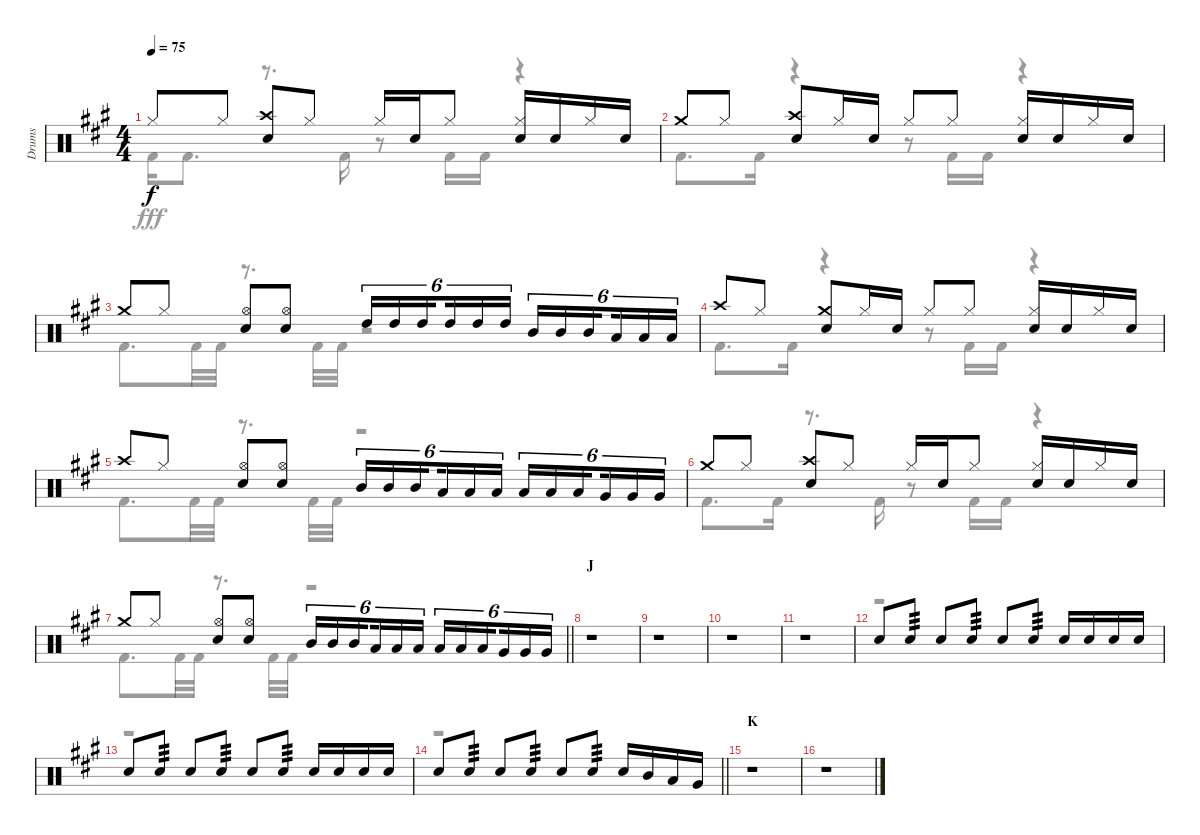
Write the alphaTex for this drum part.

\track ("Drums" "Drums") {instrument percussion}
\staff {score}
\articulation defaults
\voice
\ts (4 4)
\tempo 75
\clef neutral
\ks a "Hi-Hat (closed)".8{dy f} "Hi-Hat (closed)".8
("Crash high (hit)" "Snare (hit) 2").8 "Hi-Hat (closed)".8 "Hi-Hat (closed)".16 "Snare (hit) 2".16 "Hi-Hat (closed)".8 ("Hi-Hat (closed)" "Snare (hit) 2").16 "Snare (hit) 2".16 "Hi-Hat (closed)".16 "Snare (hit) 2".16 |
"Crash medium (hit)".8 "Hi-Hat (closed)".8 ("Crash high (hit)" "Snare (hit) 2").8 "Hi-Hat (closed)".16 "Snare (hit) 2".16 "Hi-Hat (closed)".8 "Hi-Hat (closed)".8 ("Hi-Hat (closed)" "Snare (hit) 2").16 "Snare (hit) 2".16 "Hi-Hat (closed)".16 "Snare (hit) 2".16 |
"Crash medium (hit)".8 "Hi-Hat (closed)".8 ("Hi-Hat (open)" "Snare (hit) 2").8 ("Hi-Hat (open)" "Snare (hit) 2").8 "High Tom (hit)".16{tu (6 4)} "High Tom (hit)".16{tu (6 4)} "High Tom (hit)".16{tu (6 4) beam splitsecondary} "High Tom (hit)".16{tu (6 4)} "High Tom (hit)".16{tu (6 4)} "High Tom (hit)".16{tu (6 4)} "Mid Tom (hit)".16{tu (6 4)} "Mid Tom (hit)".16{tu (6 4)} "Mid Tom (hit)".16{tu (6 4) beam splitsecondary} "Low Tom (hit)".16{tu (6 4)} "Low Tom (hit)".16{tu (6 4)} "Low Tom (hit)".16{tu (6 4)} |
"Crash high (hit)".8 "Hi-Hat (closed)".8 ("Crash medium (hit)" "Snare (hit) 2").8 "Hi-Hat (closed)".16 "Snare (hit) 2".16 "Hi-Hat (closed)".8 "Hi-Hat (closed)".8 ("Hi-Hat (closed)" "Snare (hit) 2").16 "Snare (hit) 2".16 "Hi-Hat (closed)".16 "Snare (hit) 2".16 |
"Crash high (hit)".8 "Hi-Hat (closed)".8 ("Hi-Hat (open)" "Snare (hit) 2").8 ("Hi-Hat (open)" "Snare (hit) 2").8 "Mid Tom (hit)".16{tu (6 4)} "Mid Tom (hit)".16{tu (6 4)} "Mid Tom (hit)".16{tu (6 4) beam splitsecondary} "Low Tom (hit)".16{tu (6 4)} "Low Tom (hit)".16{tu (6 4)} "Low Tom (hit)".16{tu (6 4)} "Low Tom (hit)".16{tu (6 4)} "Low Tom (hit)".16{tu (6 4)} "Low Tom (hit)".16{tu (6 4) beam splitsecondary} "Very Low Tom (hit)".16{tu (6 4)} "Very Low Tom (hit)".16{tu (6 4)} "Very Low Tom (hit)".16{tu (6 4)} |
"Crash medium (hit)".8 "Hi-Hat (closed)".8 ("Crash high (hit)" "Snare (hit) 2").8 "Hi-Hat (closed)".8 "Hi-Hat (closed)".16 "Snare (hit) 2".16 "Hi-Hat (closed)".8 ("Hi-Hat (closed)" "Snare (hit) 2").16 "Snare (hit) 2".16 "Hi-Hat (closed)".16 "Snare (hit) 2".16 |
\barLineRight lightlight "Crash medium (hit)".8 "Hi-Hat (closed)".8
("Hi-Hat (open)" "Snare (hit) 2").8 ("Hi-Hat (open)" "Snare (hit) 2").8 "Mid Tom (hit)".16{tu (6 4)} "Mid Tom (hit)".16{tu (6 4)} "Mid Tom (hit)".16{tu (6 4) beam splitsecondary} "Low Tom (hit)".16{tu (6 4)} "Low Tom (hit)".16{tu (6 4)} "Low Tom (hit)".16{tu (6 4)} "Low Tom (hit)".16{tu (6 4)} "Low Tom (hit)".16{tu (6 4)} "Low Tom (hit)".16{tu (6 4) beam splitsecondary} "Very Low Tom (hit)".16{tu (6 4)} "Very Low Tom (hit)".16{tu (6 4)} "Very Low Tom (hit)".16{tu (6 4)} |
\section ("" "J")
r.1 |
r.1 |
r.1 |
r.1 |
"Snare (hit) 2".8 "Snare (hit) 2".8{tp 3} "Snare (hit) 2".8 "Snare (hit) 2".8{tp 3} "Snare (hit) 2".8 "Snare (hit) 2".8{tp 3} "Snare (hit) 2".16 "Snare (hit) 2".16 "Snare (hit) 2".16 "Snare (hit) 2".16 |
"Snare (hit) 2".8 "Snare (hit) 2".8{tp 3} "Snare (hit) 2".8 "Snare (hit) 2".8{tp 3} "Snare (hit) 2".8 "Snare (hit) 2".8{tp 3} "Snare (hit) 2".16 "Snare (hit) 2".16 "Snare (hit) 2".16 "Snare (hit) 2".16 |
\barLineRight lightlight "Snare (hit) 2".8 "Snare (hit) 2".8{tp 3} "Snare (hit) 2".8 "Snare (hit) 2".8{tp 3} "Snare (hit) 2".8 "Snare (hit) 2".8{tp 3} "Snare (hit) 2".16 "Mid Tom (hit)".16 "Low Tom (hit)".16 "Very Low Tom (hit)".16
|
\section ("" "K")
r.1 |
r.1
\voice
\clef neutral
\ottava regular
\simile none
\ks a "Kick (hit) 2".16{dy fff} "Kick (hit) 2".8{d}
r.8{d} "Kick (hit) 2".16 r.8 "Kick (hit) 2".16 "Kick (hit) 2".16 r.4 |
"Kick (hit) 2".8{d} "Kick (hit) 2".16 r.4 r.8 "Kick (hit) 2".16 "Kick (hit) 2".16 r.4 |
"Kick (hit) 2".8{d} "Kick (hit) 2".32 "Kick (hit) 2".32 r.8{d} "Kick (hit) 2".32 "Kick (hit) 2".32 r.2 |
"Kick (hit) 2".8{d} "Kick (hit) 2".16 r.4 r.8 "Kick (hit) 2".16 "Kick (hit) 2".16 r.4 |
"Kick (hit) 2".8{d} "Kick (hit) 2".32 "Kick (hit) 2".32 r.8{d} "Kick (hit) 2".32 "Kick (hit) 2".32 r.2 |
"Kick (hit) 2".8{d} "Kick (hit) 2".16 r.8{d} "Kick (hit) 2".16 r.8 "Kick (hit) 2".16 "Kick (hit) 2".16 r.4 |
\barLineRight lightlight "Kick (hit) 2".8{d} "Kick (hit) 2".32 "Kick (hit) 2".32
r.8{d} "Kick (hit) 2".32 "Kick (hit) 2".32 r.2 |
r.1 |
r.1 |
r.1 |
r.1 |
r.1 |
r.1 |
\barLineRight lightlight
r.1 |
r.1 |
r.1
